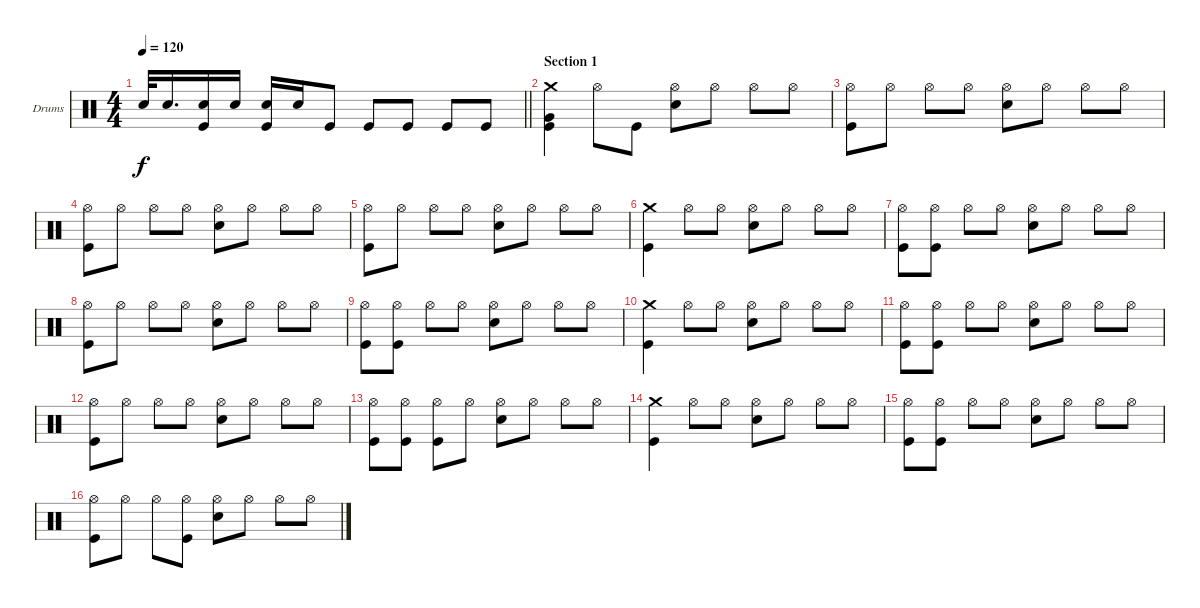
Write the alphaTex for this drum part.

\defaultSystemsLayout 4
\bracketExtendMode groupsimilarinstruments
\firstSystemTrackNameOrientation horizontal
\otherSystemsTrackNameOrientation horizontal
\track ("Drums" "Drums") {instrument percussion}
\staff {score}
\articulation defaults
\ts (4 4)
\tempo 120
\clef neutral
\barLineRight lightlight
\ks c "Snare (hit) 2".32{dy f} "Snare (hit) 2".16{d}
("Kick (hit)" "Snare (hit) 2").16 "Snare (hit) 2".16 ("Kick (hit)" "Snare (hit) 2").16 "Snare (hit) 2".16 "Kick (hit)".8 "Kick (hit)".8 "Kick (hit)".8 "Kick (hit)".8 "Kick (hit)".8 |
\section ("" "Section 1")
("Kick (hit)" "Very Low Tom (hit)" "Crash medium (hit)").4 "Hi-Hat (open)".8 "Kick (hit)".8 ("Snare (hit) 2" "Hi-Hat (open)").8 "Hi-Hat (open)".8 "Hi-Hat (open)".8 "Hi-Hat (open)".8 |
("Hi-Hat (open)" "Kick (hit)").8 "Hi-Hat (open)".8 "Hi-Hat (open)".8 "Hi-Hat (open)".8 ("Hi-Hat (open)" "Snare (hit) 2").8 "Hi-Hat (open)".8 "Hi-Hat (open)".8 "Hi-Hat (open)".8 |
("Hi-Hat (open)" "Kick (hit)").8 "Hi-Hat (open)".8 "Hi-Hat (open)".8 "Hi-Hat (open)".8 ("Hi-Hat (open)" "Snare (hit) 2").8 "Hi-Hat (open)".8 "Hi-Hat (open)".8 "Hi-Hat (open)".8 |
("Hi-Hat (open)" "Kick (hit)").8 "Hi-Hat (open)".8 "Hi-Hat (open)".8 "Hi-Hat (open)".8 ("Hi-Hat (open)" "Snare (hit) 2").8 "Hi-Hat (open)".8 "Hi-Hat (open)".8 "Hi-Hat (open)".8 |
("Kick (hit)" "Crash medium (hit)").4 "Hi-Hat (open)".8 "Hi-Hat (open)".8 ("Hi-Hat (open)" "Snare (hit) 2").8 "Hi-Hat (open)".8 "Hi-Hat (open)".8 "Hi-Hat (open)".8 |
("Kick (hit)" "Hi-Hat (open)").8 ("Kick (hit)" "Hi-Hat (open)").8 "Hi-Hat (open)".8 "Hi-Hat (open)".8 ("Hi-Hat (open)" "Snare (hit) 2").8 "Hi-Hat (open)".8 "Hi-Hat (open)".8 "Hi-Hat (open)".8 |
("Kick (hit)" "Hi-Hat (open)").8 "Hi-Hat (open)".8 "Hi-Hat (open)".8 "Hi-Hat (open)".8 ("Hi-Hat (open)" "Snare (hit) 2").8 "Hi-Hat (open)".8 "Hi-Hat (open)".8 "Hi-Hat (open)".8 |
("Kick (hit)" "Hi-Hat (open)").8 ("Kick (hit)" "Hi-Hat (open)").8 "Hi-Hat (open)".8 "Hi-Hat (open)".8 ("Hi-Hat (open)" "Snare (hit) 2").8 "Hi-Hat (open)".8 "Hi-Hat (open)".8 "Hi-Hat (open)".8 |
("Kick (hit)" "Crash medium (hit)").4 "Hi-Hat (open)".8 "Hi-Hat (open)".8 ("Hi-Hat (open)" "Snare (hit) 2").8 "Hi-Hat (open)".8 "Hi-Hat (open)".8 "Hi-Hat (open)".8 |
("Kick (hit)" "Hi-Hat (open)").8 ("Kick (hit)" "Hi-Hat (open)").8 "Hi-Hat (open)".8 "Hi-Hat (open)".8 ("Hi-Hat (open)" "Snare (hit) 2").8 "Hi-Hat (open)".8 "Hi-Hat (open)".8 "Hi-Hat (open)".8 |
("Kick (hit)" "Hi-Hat (open)").8 "Hi-Hat (open)".8 "Hi-Hat (open)".8 "Hi-Hat (open)".8 ("Hi-Hat (open)" "Snare (hit) 2").8 "Hi-Hat (open)".8 "Hi-Hat (open)".8 "Hi-Hat (open)".8 |
("Kick (hit)" "Hi-Hat (open)").8 ("Kick (hit)" "Hi-Hat (open)").8 ("Hi-Hat (open)" "Kick (hit)").8 "Hi-Hat (open)".8 ("Hi-Hat (open)" "Snare (hit) 2").8 "Hi-Hat (open)".8 "Hi-Hat (open)".8 "Hi-Hat (open)".8 |
("Kick (hit)" "Crash medium (hit)").4 "Hi-Hat (open)".8 "Hi-Hat (open)".8 ("Hi-Hat (open)" "Snare (hit) 2").8 "Hi-Hat (open)".8 "Hi-Hat (open)".8 "Hi-Hat (open)".8 |
("Kick (hit)" "Hi-Hat (open)").8 ("Kick (hit)" "Hi-Hat (open)").8 "Hi-Hat (open)".8 "Hi-Hat (open)".8 ("Hi-Hat (open)" "Snare (hit) 2").8 "Hi-Hat (open)".8 "Hi-Hat (open)".8 "Hi-Hat (open)".8 |
("Kick (hit)" "Hi-Hat (open)").8 "Hi-Hat (open)".8 "Hi-Hat (open)".8 ("Hi-Hat (open)" "Kick (hit)").8 ("Hi-Hat (open)" "Snare (hit) 2").8 "Hi-Hat (open)".8 "Hi-Hat (open)".8 "Hi-Hat (open)".8
